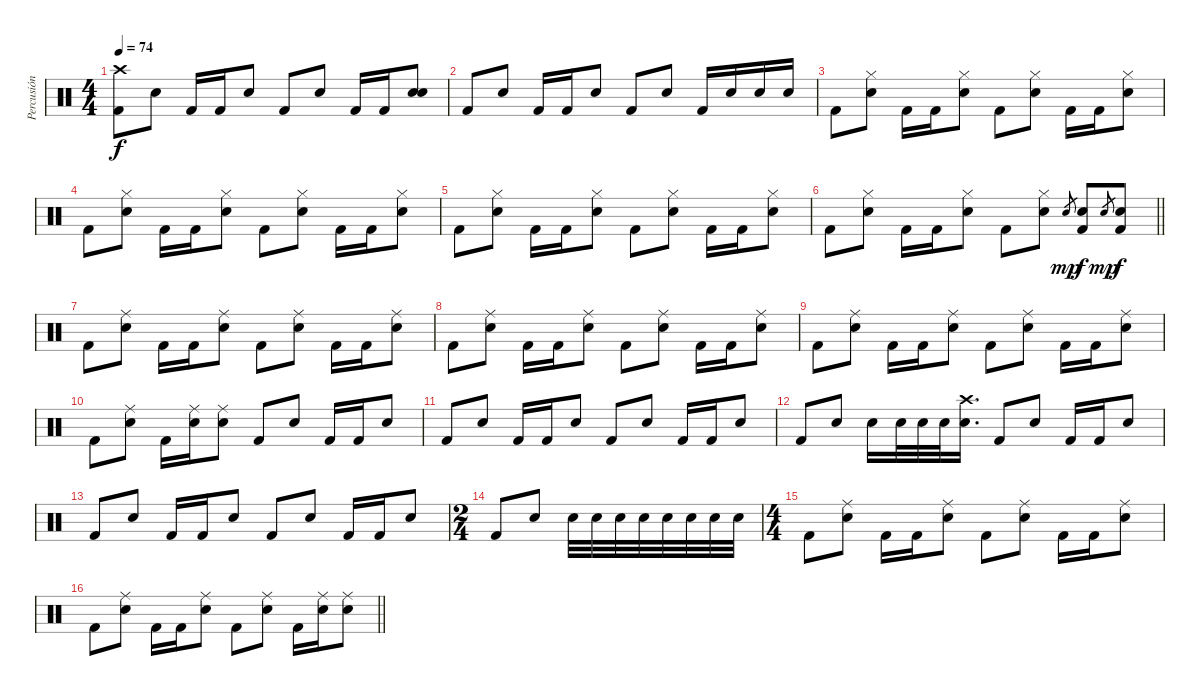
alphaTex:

\track ("Percusión" "Percusión") {instrument percussion}
\staff
\articulation defaults
\ts (4 4)
\tempo 74
\clef neutral
\ks c
("Crash high (hit)" "Kick (hit) 2").8{dy f} "Electric Snare (hit)".8 "Kick (hit) 2".16 "Kick (hit) 2".16 "Electric Snare (hit)".8 "Kick (hit) 2".8 "Electric Snare (hit)".8 "Kick (hit) 2".16 "Kick (hit) 2".16 ("Electric Snare (hit)" "Snare (hit) 2").8 |
"Kick (hit) 2".8 "Electric Snare (hit)".8 "Kick (hit) 2".16 "Kick (hit) 2".16 "Electric Snare (hit)".8 "Kick (hit) 2".8 "Electric Snare (hit)".8 "Kick (hit) 2".16 "Electric Snare (hit)".16 "Electric Snare (hit)".16 "Electric Snare (hit)".16 |
"Kick (hit) 2".8 ("Hi-Hat (closed)" "Electric Snare (hit)").8 "Kick (hit) 2".16 "Kick (hit) 2".16 ("Hi-Hat (closed)" "Electric Snare (hit)").8 "Kick (hit) 2".8 ("Hi-Hat (closed)" "Electric Snare (hit)").8 "Kick (hit) 2".16 "Kick (hit) 2".16 ("Hi-Hat (closed)" "Electric Snare (hit)").8 |
"Kick (hit) 2".8 ("Hi-Hat (closed)" "Electric Snare (hit)").8 "Kick (hit) 2".16 "Kick (hit) 2".16 ("Hi-Hat (closed)" "Electric Snare (hit)").8 "Kick (hit) 2".8 ("Hi-Hat (closed)" "Electric Snare (hit)").8 "Kick (hit) 2".16 "Kick (hit) 2".16 ("Hi-Hat (closed)" "Electric Snare (hit)").8 |
"Kick (hit) 2".8 ("Hi-Hat (closed)" "Electric Snare (hit)").8 "Kick (hit) 2".16 "Kick (hit) 2".16 ("Hi-Hat (closed)" "Electric Snare (hit)").8 "Kick (hit) 2".8 ("Hi-Hat (closed)" "Electric Snare (hit)").8 "Kick (hit) 2".16 "Kick (hit) 2".16 ("Hi-Hat (closed)" "Electric Snare (hit)").8 |
\barLineRight lightlight "Kick (hit) 2".8
("Hi-Hat (closed)" "Electric Snare (hit)").8 "Kick (hit) 2".16 "Kick (hit) 2".16 ("Hi-Hat (closed)" "Electric Snare (hit)").8 "Kick (hit) 2".8 ("Hi-Hat (closed)" "Electric Snare (hit)").8 "Electric Snare (hit)".8{gr dy mp} ("Electric Snare (hit)" "Kick (hit) 2").8{dy f} "Electric Snare (hit)".8{gr dy mp} ("Electric Snare (hit)" "Kick (hit) 2").8{dy f} |
"Kick (hit) 2".8 ("Ride (middle)" "Electric Snare (hit)").8 "Kick (hit) 2".16 "Kick (hit) 2".16 ("Ride (middle)" "Electric Snare (hit)").8 "Kick (hit) 2".8 ("Ride (middle)" "Electric Snare (hit)").8 "Kick (hit) 2".16 "Kick (hit) 2".16 ("Ride (middle)" "Electric Snare (hit)").8 |
"Kick (hit) 2".8 ("Ride (middle)" "Electric Snare (hit)").8 "Kick (hit) 2".16 "Kick (hit) 2".16 ("Ride (middle)" "Electric Snare (hit)").8 "Kick (hit) 2".8 ("Ride (middle)" "Electric Snare (hit)").8 "Kick (hit) 2".16 "Kick (hit) 2".16 ("Ride (middle)" "Electric Snare (hit)").8 |
"Kick (hit) 2".8 ("Ride (middle)" "Electric Snare (hit)").8 "Kick (hit) 2".16 "Kick (hit) 2".16 ("Ride (middle)" "Electric Snare (hit)").8 "Kick (hit) 2".8 ("Ride (middle)" "Electric Snare (hit)").8 "Kick (hit) 2".16 "Kick (hit) 2".16 ("Ride (middle)" "Electric Snare (hit)").8 |
"Kick (hit) 2".8 ("Ride (middle)" "Electric Snare (hit)").8 "Kick (hit) 2".16 ("Ride (middle)" "Electric Snare (hit)").16 ("Ride (middle)" "Electric Snare (hit)").8 "Kick (hit) 2".8 "Electric Snare (hit)".8 "Kick (hit) 2".16 "Kick (hit) 2".16 "Electric Snare (hit)".8 |
"Kick (hit) 2".8 "Electric Snare (hit)".8 "Kick (hit) 2".16 "Kick (hit) 2".16 "Electric Snare (hit)".8 "Kick (hit) 2".8 "Electric Snare (hit)".8 "Kick (hit) 2".16 "Kick (hit) 2".16 "Electric Snare (hit)".8 |
"Kick (hit) 2".8 "Electric Snare (hit)".8 "Electric Snare (hit)".16 "Electric Snare (hit)".32 "Electric Snare (hit)".32 "Electric Snare (hit)".32 ("Crash high (hit)" "Electric Snare (hit)").16{d} "Kick (hit) 2".8 "Electric Snare (hit)".8 "Kick (hit) 2".16 "Kick (hit) 2".16 "Electric Snare (hit)".8 |
"Kick (hit) 2".8 "Electric Snare (hit)".8 "Kick (hit) 2".16 "Kick (hit) 2".16 "Electric Snare (hit)".8 "Kick (hit) 2".8 "Electric Snare (hit)".8 "Kick (hit) 2".16 "Kick (hit) 2".16 "Electric Snare (hit)".8 |
\ts (2 4)
"Kick (hit) 2".8 "Electric Snare (hit)".8 "Electric Snare (hit)".32 "Electric Snare (hit)".32 "Electric Snare (hit)".32 "Electric Snare (hit)".32 "Electric Snare (hit)".32 "Electric Snare (hit)".32 "Electric Snare (hit)".32 "Electric Snare (hit)".32 |
\ts (4 4)
"Kick (hit) 2".8 ("Ride (middle)" "Electric Snare (hit)").8 "Kick (hit) 2".16 "Kick (hit) 2".16 ("Ride (middle)" "Electric Snare (hit)").8 "Kick (hit) 2".8 ("Ride (middle)" "Electric Snare (hit)").8 "Kick (hit) 2".16 "Kick (hit) 2".16 ("Ride (middle)" "Electric Snare (hit)").8 |
\barLineRight lightlight "Kick (hit) 2".8
("Ride (middle)" "Electric Snare (hit)").8 "Kick (hit) 2".16 "Kick (hit) 2".16 ("Ride (middle)" "Electric Snare (hit)").8 "Kick (hit) 2".8 ("Ride (middle)" "Electric Snare (hit)").8 "Kick (hit) 2".16 ("Ride (middle)" "Electric Snare (hit)").16 ("Ride (middle)" "Electric Snare (hit)").8
